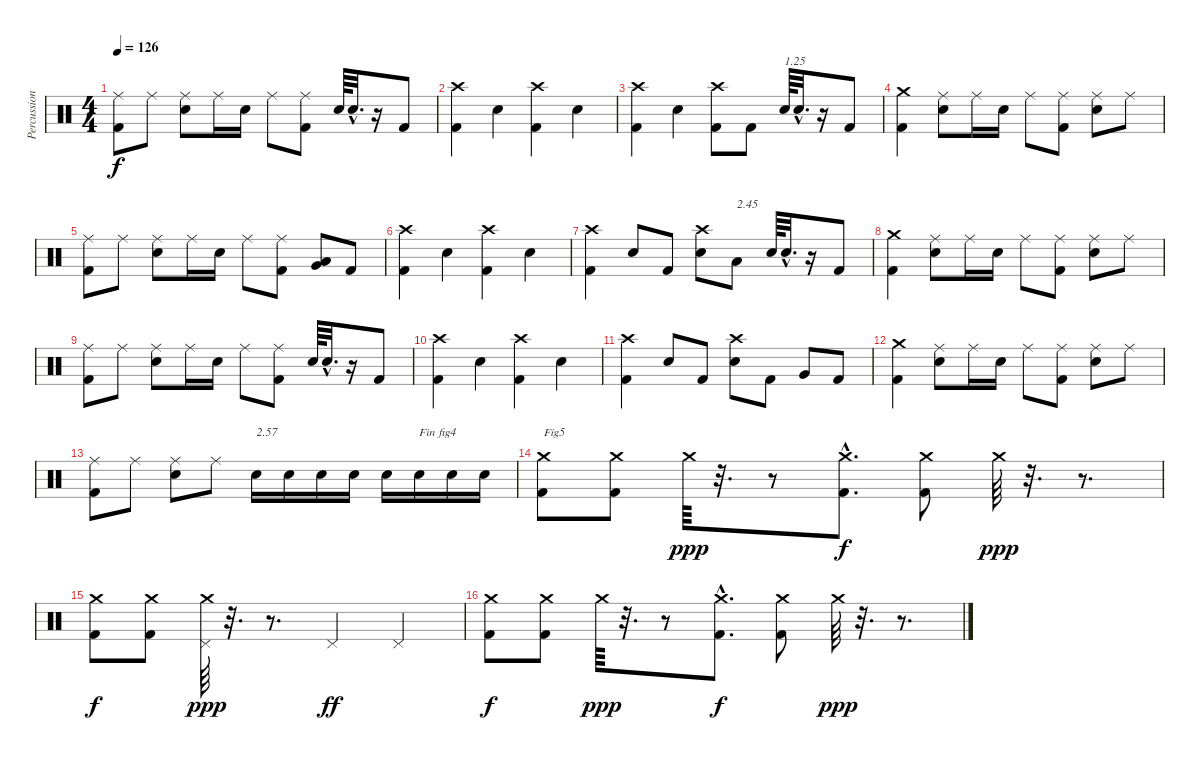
\track ("Percussions" "Percussion") {instrument percussion}
\staff {score}
\articulation defaults
\ts (4 4)
\tempo 126
\clef neutral
\ks c
("Kick (hit) 2" "Ride (middle)").8{dy f} "Ride (middle)".8 ("Electric Snare (hit)" "Ride (middle)").8 "Ride (middle)".16 "Electric Snare (hit)".16 "Ride (middle)".8 ("Kick (hit) 2" "Ride (middle)").8 "Electric Snare (hit)".64 "Electric Snare (hit)"{hac}.32{d} r.16 "Kick (hit) 2".8 |
("Kick (hit) 2" "Crash high (hit)").4 "Electric Snare (hit)".4 ("Kick (hit) 2" "Crash high (hit)").4 "Electric Snare (hit)".4 |
("Kick (hit) 2" "Crash high (hit)").4 "Electric Snare (hit)".4 ("Kick (hit) 2" "Crash high (hit)").8 "Kick (hit) 2".8 "Electric Snare (hit)".64{txt "1.25"} "Electric Snare (hit)"{hac}.32{d} r.16 "Kick (hit) 2".8 |
("Kick (hit) 2" "Crash medium (hit)").4 ("Electric Snare (hit)" "Ride (middle)").8 "Ride (middle)".16 "Electric Snare (hit)".16 "Ride (middle)".8 ("Kick (hit) 2" "Ride (middle)").8 ("Electric Snare (hit)" "Ride (middle)").8 "Ride (middle)".8 |
("Kick (hit) 2" "Ride (middle)").8 "Ride (middle)".8 ("Electric Snare (hit)" "Ride (middle)").8 "Ride (middle)".16 "Electric Snare (hit)".16 "Ride (middle)".8 ("Kick (hit) 2" "Ride (middle)").8 ("Very Low Tom (hit)" "Low Tom (hit)").8 "Kick (hit) 2".8 |
("Kick (hit) 2" "Crash high (hit)").4 "Electric Snare (hit)".4 ("Kick (hit) 2" "Crash high (hit)").4 "Electric Snare (hit)".4 |
("Kick (hit) 2" "Crash high (hit)").4 "Electric Snare (hit)".8 "Kick (hit) 2".8 ("Electric Snare (hit)" "Crash high (hit)").8 "Low Tom (hit)".8{txt "2.45"} "Electric Snare (hit)".64 "Electric Snare (hit)"{hac}.32{d} r.16 "Kick (hit) 2".8 |
("Kick (hit) 2" "Crash medium (hit)").4 ("Electric Snare (hit)" "Ride (middle)").8 "Ride (middle)".16 "Electric Snare (hit)".16 "Ride (middle)".8 ("Kick (hit) 2" "Ride (middle)").8 ("Electric Snare (hit)" "Ride (middle)").8 "Ride (middle)".8 |
("Kick (hit) 2" "Ride (middle)").8 "Ride (middle)".8 ("Electric Snare (hit)" "Ride (middle)").8 "Ride (middle)".16 "Electric Snare (hit)".16 "Ride (middle)".8 ("Kick (hit) 2" "Ride (middle)").8 "Electric Snare (hit)".64 "Electric Snare (hit)"{hac}.32{d} r.16 "Kick (hit) 2".8 |
("Kick (hit) 2" "Crash high (hit)").4 "Electric Snare (hit)".4 ("Kick (hit) 2" "Crash high (hit)").4 "Electric Snare (hit)".4 |
("Kick (hit) 2" "Crash high (hit)").4 "Electric Snare (hit)".8 "Kick (hit) 2".8 ("Electric Snare (hit)" "Crash high (hit)").8 "Kick (hit) 2".8 "Very Low Tom (hit)".8 "Kick (hit) 2".8 |
("Kick (hit) 2" "Crash medium (hit)").4 ("Electric Snare (hit)" "Ride (middle)").8 "Ride (middle)".16 "Electric Snare (hit)".16 "Ride (middle)".8 ("Kick (hit) 2" "Ride (middle)").8 ("Electric Snare (hit)" "Ride (middle)").8 "Ride (middle)".8 |
("Kick (hit) 2" "Ride (middle)").8 "Ride (middle)".8 ("Electric Snare (hit)" "Ride (middle)").8 "Ride (middle)".8 "Electric Snare (hit)".16{txt "2.57"} "Electric Snare (hit)".16 "Electric Snare (hit)".16 "Electric Snare (hit)".16 "Electric Snare (hit)".16 "Electric Snare (hit)".16{txt "Fin fig4"} "Electric Snare (hit)".16 "Electric Snare (hit)".16 |
("Kick (hit) 2" "Crash medium (hit)").8{txt "Fig5"} ("Kick (hit) 2" "Crash medium (hit)").8 "Crash medium (hit)".64{dy ppp} r.32{d} r.8 ("Kick (hit) 2"{hac} "Crash medium (hit)"{hac}).8{d dy f} ("Kick (hit) 2" "Crash medium (hit)").8 "Crash medium (hit)".64{dy ppp} r.32{d} r.8{d} |
("Kick (hit) 2" "Crash medium (hit)").8{dy f} ("Kick (hit) 2" "Crash medium (hit)").8 ("Pedal Hi-Hat (hit)" "Crash medium (hit)").64{dy ppp} r.32{d} r.8{d} "Pedal Hi-Hat (hit)".4{dy ff} "Pedal Hi-Hat (hit)".4 |
("Kick (hit) 2" "Crash medium (hit)").8{dy f} ("Kick (hit) 2" "Crash medium (hit)").8 "Crash medium (hit)".64{dy ppp} r.32{d} r.8 ("Kick (hit) 2"{hac} "Crash medium (hit)"{hac}).8{d dy f} ("Kick (hit) 2" "Crash medium (hit)").8 "Crash medium (hit)".64{dy ppp} r.32{d} r.8{d}
